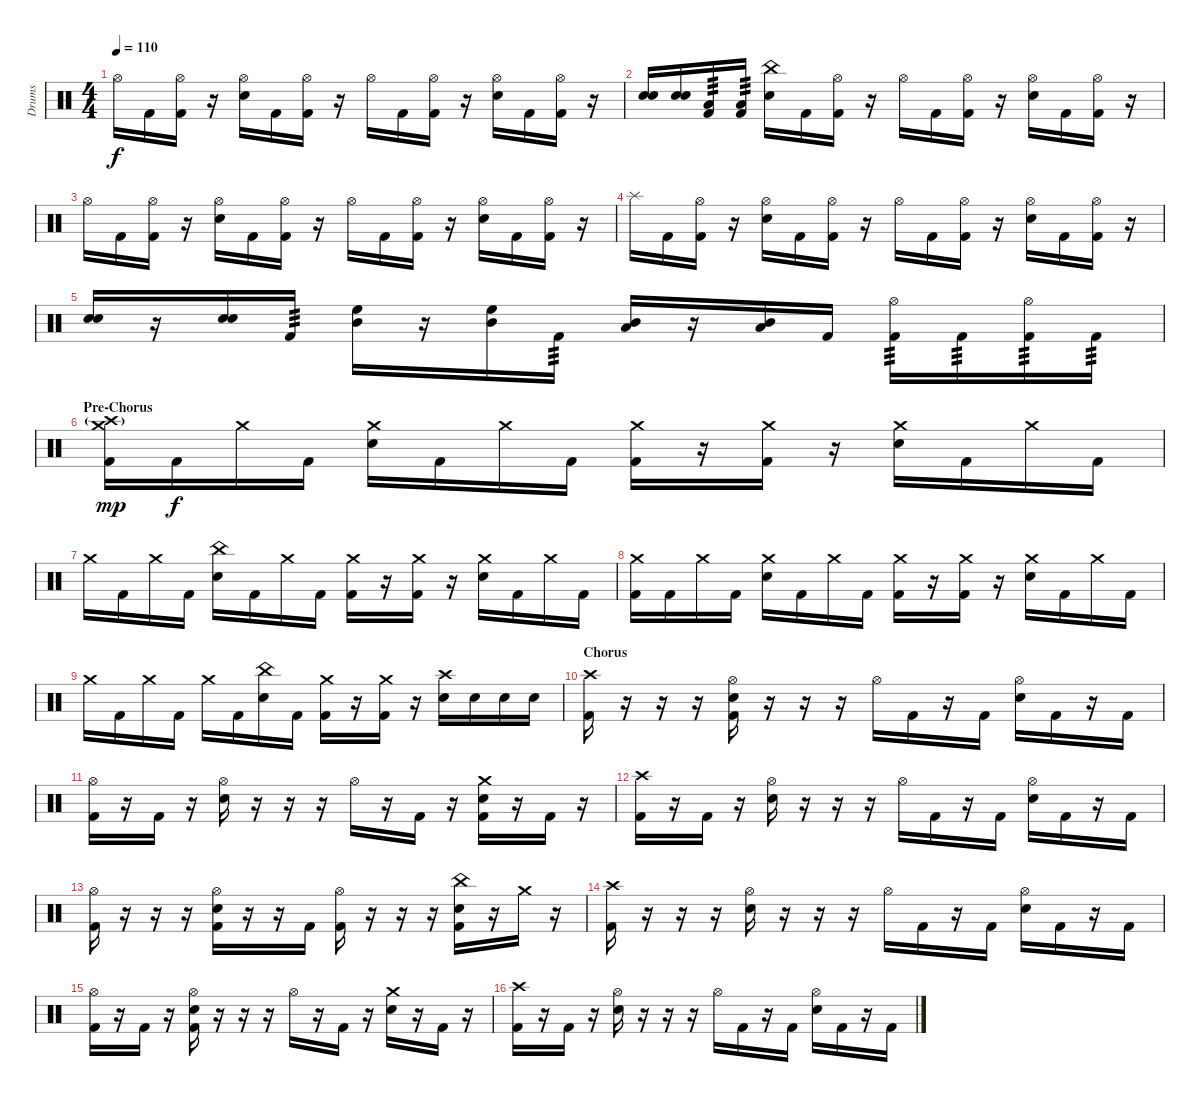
\track ("Drums" "Drums") {instrument percussion}
\staff {score}
\articulation defaults
\ts (4 4)
\tempo 110
\clef neutral
\ks c "Hi-Hat (open)".16{dy f} "Kick (hit) 2".16
("Hi-Hat (open)" "Kick (hit) 2").16 r.16 ("Hi-Hat (open)" "Snare (hit) 2").16 "Kick (hit) 2".16 ("Hi-Hat (open)" "Kick (hit) 2").16 r.16 "Hi-Hat (open)".16 "Kick (hit) 2".16 ("Hi-Hat (open)" "Kick (hit) 2").16 r.16 ("Hi-Hat (open)" "Snare (hit) 2").16 "Kick (hit) 2".16 ("Hi-Hat (open)" "Kick (hit) 2").16 r.16 |
("Snare (hit) 2" "Snare (hit) 2").16 ("Snare (hit) 2" "Snare (hit) 2").16 ("Low Floor Tom (hit)" "Kick (hit) 2").16{tp 3} ("Low Floor Tom (hit)" "Kick (hit) 2").16{tp 3} ("China (hit)" "Snare (hit) 2").16 "Kick (hit) 2".16 ("Hi-Hat (open)" "Kick (hit) 2").16 r.16 "Hi-Hat (open)".16 "Kick (hit) 2".16 ("Hi-Hat (open)" "Kick (hit) 2").16 r.16 ("Hi-Hat (open)" "Snare (hit) 2").16 "Kick (hit) 2".16 ("Hi-Hat (open)" "Kick (hit) 2").16 r.16 |
"Hi-Hat (open)".16 "Kick (hit) 2".16 ("Hi-Hat (open)" "Kick (hit) 2").16 r.16 ("Hi-Hat (open)" "Snare (hit) 2").16 "Kick (hit) 2".16 ("Hi-Hat (open)" "Kick (hit) 2").16 r.16 "Hi-Hat (open)".16 "Kick (hit) 2".16 ("Hi-Hat (open)" "Kick (hit) 2").16 r.16 ("Hi-Hat (open)" "Snare (hit) 2").16 "Kick (hit) 2".16 ("Hi-Hat (open)" "Kick (hit) 2").16 r.16 |
"Splash (hit)".16 "Kick (hit) 2".16 ("Hi-Hat (open)" "Kick (hit) 2").16 r.16 ("Hi-Hat (open)" "Snare (hit) 2").16 "Kick (hit) 2".16 ("Hi-Hat (open)" "Kick (hit) 2").16 r.16 "Hi-Hat (open)".16 "Kick (hit) 2".16 ("Hi-Hat (open)" "Kick (hit) 2").16 r.16 ("Hi-Hat (open)" "Snare (hit) 2").16 "Kick (hit) 2".16 ("Hi-Hat (open)" "Kick (hit) 2").16 r.16 |
("Snare (hit) 2" "Snare (hit) 2").16 r.16 ("Snare (hit) 2" "Snare (hit) 2").16 "Kick (hit) 2".16{tp 3} ("High Floor Tom (hit)" "Mid Tom (hit)").16 r.16 ("High Floor Tom (hit)" "Mid Tom (hit)").16 "Kick (hit) 2".16{tp 3} ("Mid Tom (hit)" "Low Tom (hit)").16 r.16 ("Mid Tom (hit)" "Low Tom (hit)").16 "Kick (hit) 2".16 ("Hi-Hat (open)" "Kick (hit) 2").16{tp 3} "Kick (hit) 2".16{tp 3} ("Hi-Hat (open)" "Kick (hit) 2").16{tp 3} "Kick (hit) 2".16{tp 3} |
\section ("" "Pre-Chorus")
("Crash medium (hit)" "Crash high (hit)"{g} "Kick (hit) 2").16{dy mp} "Kick (hit) 2".16{dy f} "Crash medium (hit)".16 "Kick (hit) 2".16 ("Crash medium (hit)" "Snare (hit) 2").16 "Kick (hit) 2".16 "Crash medium (hit)".16 "Kick (hit) 2".16 ("Crash medium (hit)" "Kick (hit) 2").16 r.16 ("Crash medium (hit)" "Kick (hit) 2").16 r.16 ("Crash medium (hit)" "Snare (hit) 2").16 "Kick (hit) 2".16 "Crash medium (hit)".16 "Kick (hit) 2".16 |
"Crash medium (hit)".16 "Kick (hit) 2".16 "Crash medium (hit)".16 "Kick (hit) 2".16 ("China (hit)" "Snare (hit) 2").16 "Kick (hit) 2".16 "Crash medium (hit)".16 "Kick (hit) 2".16 ("Crash medium (hit)" "Kick (hit) 2").16 r.16 ("Crash medium (hit)" "Kick (hit) 2").16 r.16 ("Crash medium (hit)" "Snare (hit) 2").16 "Kick (hit) 2".16 "Crash medium (hit)".16 "Kick (hit) 2".16 |
("Crash medium (hit)" "Kick (hit) 2").16 "Kick (hit) 2".16 "Crash medium (hit)".16 "Kick (hit) 2".16 ("Crash medium (hit)" "Snare (hit) 2").16 "Kick (hit) 2".16 "Crash medium (hit)".16 "Kick (hit) 2".16 ("Crash medium (hit)" "Kick (hit) 2").16 r.16 ("Crash medium (hit)" "Kick (hit) 2").16 r.16 ("Crash medium (hit)" "Snare (hit) 2").16 "Kick (hit) 2".16 "Crash medium (hit)".16 "Kick (hit) 2".16 |
"Crash medium (hit)".16 "Kick (hit) 2".16 "Crash medium (hit)".16 "Kick (hit) 2".16 "Crash medium (hit)".16 "Kick (hit) 2".16 ("China (hit)" "Snare (hit) 2").16 "Kick (hit) 2".16 ("Crash medium (hit)" "Kick (hit) 2").16 r.16 ("Crash medium (hit)" "Kick (hit) 2").16 r.16 ("Crash high (hit)" "Snare (hit) 2").16 "Snare (hit) 2".16 "Snare (hit) 2".16 "Snare (hit) 2".16 |
\section ("" "Chorus")
("Crash high (hit)" "Kick (hit) 2").16 r.16 r.16 r.16 ("Hi-Hat (open)" "Snare (hit) 2" "Kick (hit) 2").16 r.16 r.16 r.16 "Hi-Hat (open)".16 "Kick (hit) 2".16 r.16 "Kick (hit) 2".16 ("Hi-Hat (open)" "Snare (hit) 2").16 "Kick (hit) 2".16 r.16 "Kick (hit) 2".16 |
("Hi-Hat (open)" "Kick (hit) 2").16 r.16 "Kick (hit) 2".16 r.16 ("Hi-Hat (open)" "Snare (hit) 2").16 r.16 r.16 r.16 "Hi-Hat (open)".16 r.16 "Kick (hit) 2".16 r.16 ("Crash medium (hit)" "Snare (hit) 2" "Kick (hit) 2").16 r.16 "Kick (hit) 2".16 r.16 |
("Crash high (hit)" "Kick (hit) 2").16 r.16 "Kick (hit) 2".16 r.16 ("Hi-Hat (open)" "Snare (hit) 2").16 r.16 r.16 r.16 "Hi-Hat (open)".16 "Kick (hit) 2".16 r.16 "Kick (hit) 2".16 ("Hi-Hat (open)" "Snare (hit) 2").16 "Kick (hit) 2".16 r.16 "Kick (hit) 2".16 |
("Hi-Hat (open)" "Kick (hit) 2").16 r.16 r.16 r.16 ("Hi-Hat (open)" "Snare (hit) 2" "Kick (hit) 2").16 r.16 r.16 "Kick (hit) 2".16 ("Hi-Hat (open)" "Kick (hit) 2").16 r.16 r.16 r.16 ("China (hit)" "Snare (hit) 2" "Kick (hit) 2").16 r.16 "Crash medium (hit)".16 r.16 |
("Crash high (hit)" "Kick (hit) 2").16 r.16 r.16 r.16 ("Hi-Hat (open)" "Snare (hit) 2").16 r.16 r.16 r.16 "Hi-Hat (open)".16 "Kick (hit) 2".16 r.16 "Kick (hit) 2".16 ("Hi-Hat (open)" "Snare (hit) 2").16 "Kick (hit) 2".16 r.16 "Kick (hit) 2".16 |
("Hi-Hat (open)" "Kick (hit) 2").16 r.16 "Kick (hit) 2".16 r.16 ("Hi-Hat (open)" "Snare (hit) 2" "Kick (hit) 2").16 r.16 r.16 r.16 "Hi-Hat (open)".16 r.16 "Kick (hit) 2".16 r.16 ("Crash medium (hit)" "Snare (hit) 2").16 r.16 "Kick (hit) 2".16 r.16 |
("Crash high (hit)" "Kick (hit) 2").16 r.16 "Kick (hit) 2".16 r.16 ("Hi-Hat (open)" "Snare (hit) 2").16 r.16 r.16 r.16 "Hi-Hat (open)".16 "Kick (hit) 2".16 r.16 "Kick (hit) 2".16 ("Hi-Hat (open)" "Snare (hit) 2").16 "Kick (hit) 2".16 r.16 "Kick (hit) 2".16
